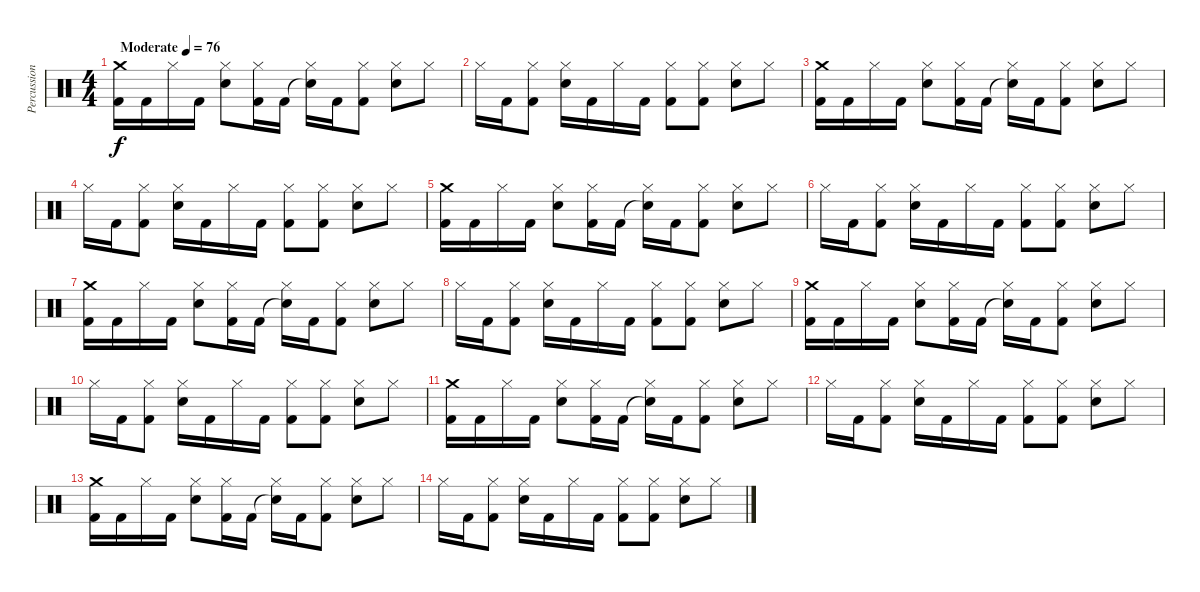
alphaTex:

\track ("Percussion" "Percussion") {instrument percussion}
\staff {score}
\articulation defaults
\ts (4 4)
\tempo (76 "Moderate")
\clef neutral
\ks c
("Crash medium (hit)" "Kick (hit) 2").16{dy f} "Kick (hit) 2".16 "Hi-Hat (closed)".16 "Kick (hit) 2".16 ("Hi-Hat (closed)" "Snare (hit) 2").8 ("Hi-Hat (closed)" "Kick (hit) 2").16 "Kick (hit) 2".16 ("Snare (hit)"{t} "Hi-Hat (closed)").16 "Kick (hit) 2".16 ("Hi-Hat (closed)" "Kick (hit) 2").8 ("Hi-Hat (closed)" "Snare (hit) 2").8 "Hi-Hat (closed)".8 |
"Hi-Hat (closed)".16 "Kick (hit) 2".16 ("Hi-Hat (closed)" "Kick (hit) 2").8 ("Hi-Hat (closed)" "Snare (hit) 2").16 "Kick (hit) 2".16 "Hi-Hat (closed)".16 "Kick (hit) 2".16 ("Hi-Hat (closed)" "Kick (hit) 2").8 ("Hi-Hat (closed)" "Kick (hit) 2").8 ("Hi-Hat (closed)" "Snare (hit) 2").8 "Hi-Hat (closed)".8 |
("Crash medium (hit)" "Kick (hit) 2").16 "Kick (hit) 2".16 "Hi-Hat (closed)".16 "Kick (hit) 2".16 ("Hi-Hat (closed)" "Snare (hit) 2").8 ("Hi-Hat (closed)" "Kick (hit) 2").16 "Kick (hit) 2".16 ("Snare (hit)"{t} "Hi-Hat (closed)").16 "Kick (hit) 2".16 ("Hi-Hat (closed)" "Kick (hit) 2").8 ("Hi-Hat (closed)" "Snare (hit) 2").8 "Hi-Hat (closed)".8 |
"Hi-Hat (closed)".16 "Kick (hit) 2".16 ("Hi-Hat (closed)" "Kick (hit) 2").8 ("Hi-Hat (closed)" "Snare (hit) 2").16 "Kick (hit) 2".16 "Hi-Hat (closed)".16 "Kick (hit) 2".16 ("Hi-Hat (closed)" "Kick (hit) 2").8 ("Hi-Hat (closed)" "Kick (hit) 2").8 ("Hi-Hat (closed)" "Snare (hit) 2").8 "Hi-Hat (closed)".8 |
("Crash medium (hit)" "Kick (hit) 2").16 "Kick (hit) 2".16 "Hi-Hat (closed)".16 "Kick (hit) 2".16 ("Hi-Hat (closed)" "Snare (hit) 2").8 ("Hi-Hat (closed)" "Kick (hit) 2").16 "Kick (hit) 2".16 ("Snare (hit)"{t} "Hi-Hat (closed)").16 "Kick (hit) 2".16 ("Hi-Hat (closed)" "Kick (hit) 2").8 ("Hi-Hat (closed)" "Snare (hit) 2").8 "Hi-Hat (closed)".8 |
"Hi-Hat (closed)".16 "Kick (hit) 2".16 ("Hi-Hat (closed)" "Kick (hit) 2").8 ("Hi-Hat (closed)" "Snare (hit) 2").16 "Kick (hit) 2".16 "Hi-Hat (closed)".16 "Kick (hit) 2".16 ("Hi-Hat (closed)" "Kick (hit) 2").8 ("Hi-Hat (closed)" "Kick (hit) 2").8 ("Hi-Hat (closed)" "Snare (hit) 2").8 "Hi-Hat (closed)".8 |
("Crash medium (hit)" "Kick (hit) 2").16 "Kick (hit) 2".16 "Hi-Hat (closed)".16 "Kick (hit) 2".16 ("Hi-Hat (closed)" "Snare (hit) 2").8 ("Hi-Hat (closed)" "Kick (hit) 2").16 "Kick (hit) 2".16 ("Snare (hit)"{t} "Hi-Hat (closed)").16 "Kick (hit) 2".16 ("Hi-Hat (closed)" "Kick (hit) 2").8 ("Hi-Hat (closed)" "Snare (hit) 2").8 "Hi-Hat (closed)".8 |
"Hi-Hat (closed)".16 "Kick (hit) 2".16 ("Hi-Hat (closed)" "Kick (hit) 2").8 ("Hi-Hat (closed)" "Snare (hit) 2").16 "Kick (hit) 2".16 "Hi-Hat (closed)".16 "Kick (hit) 2".16 ("Hi-Hat (closed)" "Kick (hit) 2").8 ("Hi-Hat (closed)" "Kick (hit) 2").8 ("Hi-Hat (closed)" "Snare (hit) 2").8 "Hi-Hat (closed)".8 |
("Crash medium (hit)" "Kick (hit) 2").16 "Kick (hit) 2".16 "Hi-Hat (closed)".16 "Kick (hit) 2".16 ("Hi-Hat (closed)" "Snare (hit) 2").8 ("Hi-Hat (closed)" "Kick (hit) 2").16 "Kick (hit) 2".16 ("Snare (hit)"{t} "Hi-Hat (closed)").16 "Kick (hit) 2".16 ("Hi-Hat (closed)" "Kick (hit) 2").8 ("Hi-Hat (closed)" "Snare (hit) 2").8 "Hi-Hat (closed)".8 |
"Hi-Hat (closed)".16 "Kick (hit) 2".16 ("Hi-Hat (closed)" "Kick (hit) 2").8 ("Hi-Hat (closed)" "Snare (hit) 2").16 "Kick (hit) 2".16 "Hi-Hat (closed)".16 "Kick (hit) 2".16 ("Hi-Hat (closed)" "Kick (hit) 2").8 ("Hi-Hat (closed)" "Kick (hit) 2").8 ("Hi-Hat (closed)" "Snare (hit) 2").8 "Hi-Hat (closed)".8 |
("Crash medium (hit)" "Kick (hit) 2").16 "Kick (hit) 2".16 "Hi-Hat (closed)".16 "Kick (hit) 2".16 ("Hi-Hat (closed)" "Snare (hit) 2").8 ("Hi-Hat (closed)" "Kick (hit) 2").16 "Kick (hit) 2".16 ("Snare (hit)"{t} "Hi-Hat (closed)").16 "Kick (hit) 2".16 ("Hi-Hat (closed)" "Kick (hit) 2").8 ("Hi-Hat (closed)" "Snare (hit) 2").8 "Hi-Hat (closed)".8 |
"Hi-Hat (closed)".16 "Kick (hit) 2".16 ("Hi-Hat (closed)" "Kick (hit) 2").8 ("Hi-Hat (closed)" "Snare (hit) 2").16 "Kick (hit) 2".16 "Hi-Hat (closed)".16 "Kick (hit) 2".16 ("Hi-Hat (closed)" "Kick (hit) 2").8 ("Hi-Hat (closed)" "Kick (hit) 2").8 ("Hi-Hat (closed)" "Snare (hit) 2").8 "Hi-Hat (closed)".8 |
("Crash medium (hit)" "Kick (hit) 2").16 "Kick (hit) 2".16 "Hi-Hat (closed)".16 "Kick (hit) 2".16 ("Hi-Hat (closed)" "Snare (hit) 2").8 ("Hi-Hat (closed)" "Kick (hit) 2").16 "Kick (hit) 2".16 ("Snare (hit)"{t} "Hi-Hat (closed)").16 "Kick (hit) 2".16 ("Hi-Hat (closed)" "Kick (hit) 2").8 ("Hi-Hat (closed)" "Snare (hit) 2").8 "Hi-Hat (closed)".8 |
"Hi-Hat (closed)".16 "Kick (hit) 2".16 ("Hi-Hat (closed)" "Kick (hit) 2").8 ("Hi-Hat (closed)" "Snare (hit) 2").16 "Kick (hit) 2".16 "Hi-Hat (closed)".16 "Kick (hit) 2".16 ("Hi-Hat (closed)" "Kick (hit) 2").8 ("Hi-Hat (closed)" "Kick (hit) 2").8 ("Hi-Hat (closed)" "Snare (hit) 2").8 "Hi-Hat (closed)".8
